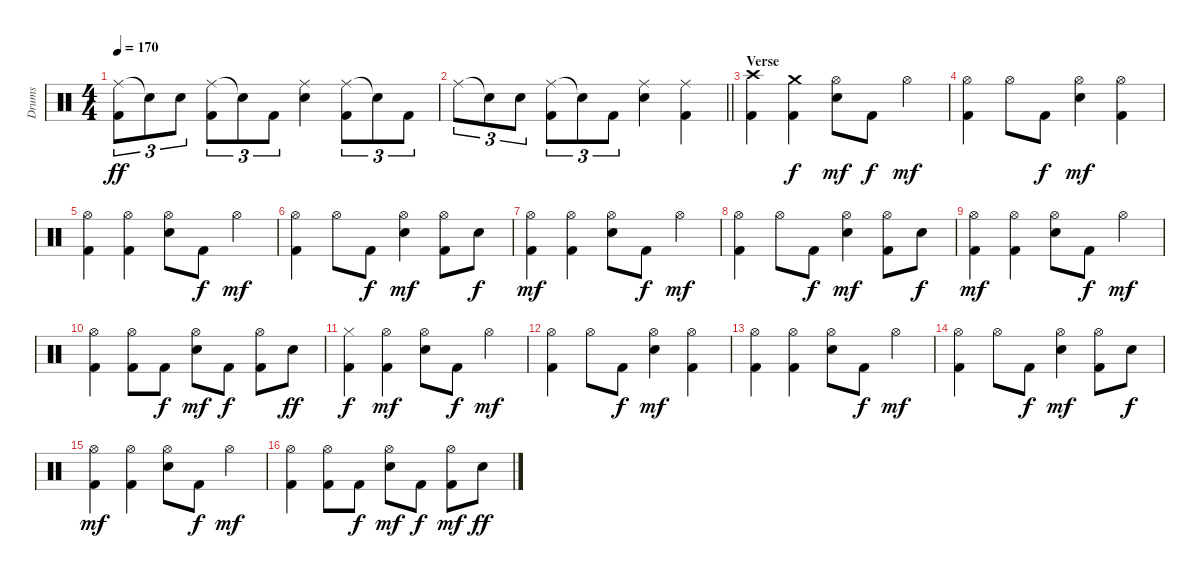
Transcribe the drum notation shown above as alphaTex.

\track ("Drums" "Drums") {instrument percussion}
\staff {score}
\articulation defaults
\ts (4 4)
\tempo 170
\clef neutral
\ks c
("Ride (middle)" "Kick (hit) 2").8{tu (3 2) dy ff} "Snare (hit)"{t}.8{tu (3 2)} "Snare (hit) 2".8{tu (3 2)} ("Ride (middle)" "Kick (hit) 2").8{tu (3 2)} "Snare (hit)"{t}.8{tu (3 2)} "Kick (hit) 2".8{tu (3 2)} ("Ride (middle)" "Snare (hit) 2").4 ("Ride (middle)" "Kick (hit) 2").8{tu (3 2)} "Snare (hit)"{t}.8{tu (3 2)} "Kick (hit) 2".8{tu (3 2)} |
\barLineRight lightlight "Ride (middle)".8{tu (3 2)} "Snare (hit)"{t}.8{tu (3 2)} "Snare (hit) 2".8{tu (3 2)}
("Ride (middle)" "Kick (hit) 2").8{tu (3 2)} "Snare (hit)"{t}.8{tu (3 2)} "Kick (hit) 2".8{tu (3 2)} ("Ride (middle)" "Snare (hit) 2").4 ("Ride (middle)" "Kick (hit) 2").4 |
\section ("" "Verse")
("Crash high (hit)" "Kick (hit) 2").4 ("Crash medium (hit)" "Kick (hit) 2").4{dy f} ("Hi-Hat (open)" "Snare (hit) 2").8{dy mf} "Kick (hit) 2".8{dy f} "Hi-Hat (open)".4{dy mf} |
("Hi-Hat (open)" "Kick (hit) 2").4 "Hi-Hat (open)".8 "Kick (hit) 2".8{dy f} ("Hi-Hat (open)" "Snare (hit) 2").4{dy mf} ("Hi-Hat (open)" "Kick (hit) 2").4 |
("Hi-Hat (open)" "Kick (hit) 2").4 ("Hi-Hat (open)" "Kick (hit) 2").4 ("Hi-Hat (open)" "Snare (hit) 2").8 "Kick (hit) 2".8{dy f} "Hi-Hat (open)".4{dy mf} |
("Hi-Hat (open)" "Kick (hit) 2").4 "Hi-Hat (open)".8 "Kick (hit) 2".8{dy f} ("Hi-Hat (open)" "Snare (hit) 2").4{dy mf} ("Hi-Hat (open)" "Kick (hit) 2").8 "Snare (hit) 2".8{dy f} |
("Hi-Hat (open)" "Kick (hit) 2").4{dy mf} ("Hi-Hat (open)" "Kick (hit) 2").4 ("Hi-Hat (open)" "Snare (hit) 2").8 "Kick (hit) 2".8{dy f} "Hi-Hat (open)".4{dy mf} |
("Hi-Hat (open)" "Kick (hit) 2").4 "Hi-Hat (open)".8 "Kick (hit) 2".8{dy f} ("Hi-Hat (open)" "Snare (hit) 2").4{dy mf} ("Hi-Hat (open)" "Kick (hit) 2").8 "Snare (hit) 2".8{dy f} |
("Hi-Hat (open)" "Kick (hit) 2").4{dy mf} ("Hi-Hat (open)" "Kick (hit) 2").4 ("Hi-Hat (open)" "Snare (hit) 2").8 "Kick (hit) 2".8{dy f} "Hi-Hat (open)".4{dy mf} |
("Hi-Hat (open)" "Kick (hit) 2").4 ("Hi-Hat (open)" "Kick (hit) 2").8 "Kick (hit) 2".8{dy f} ("Hi-Hat (open)" "Snare (hit) 2").8{dy mf} "Kick (hit) 2".8{dy f} ("Hi-Hat (open)" "Kick (hit) 2").8 "Snare (hit) 2".8{dy ff} |
("Hi-Hat (closed)" "Kick (hit) 2").4{dy f} ("Hi-Hat (open)" "Kick (hit) 2").4{dy mf} ("Hi-Hat (open)" "Snare (hit) 2").8 "Kick (hit) 2".8{dy f} "Hi-Hat (open)".4{dy mf} |
("Hi-Hat (open)" "Kick (hit) 2").4 "Hi-Hat (open)".8 "Kick (hit) 2".8{dy f} ("Hi-Hat (open)" "Snare (hit) 2").4{dy mf} ("Hi-Hat (open)" "Kick (hit) 2").4 |
("Hi-Hat (open)" "Kick (hit) 2").4 ("Hi-Hat (open)" "Kick (hit) 2").4 ("Hi-Hat (open)" "Snare (hit) 2").8 "Kick (hit) 2".8{dy f} "Hi-Hat (open)".4{dy mf} |
("Hi-Hat (open)" "Kick (hit) 2").4 "Hi-Hat (open)".8 "Kick (hit) 2".8{dy f} ("Hi-Hat (open)" "Snare (hit) 2").4{dy mf} ("Hi-Hat (open)" "Kick (hit) 2").8 "Snare (hit) 2".8{dy f} |
("Hi-Hat (open)" "Kick (hit) 2").4{dy mf} ("Hi-Hat (open)" "Kick (hit) 2").4 ("Hi-Hat (open)" "Snare (hit) 2").8 "Kick (hit) 2".8{dy f} "Hi-Hat (open)".4{dy mf} |
("Hi-Hat (open)" "Kick (hit) 2").4 ("Hi-Hat (open)" "Kick (hit) 2").8 "Kick (hit) 2".8{dy f} ("Hi-Hat (open)" "Snare (hit) 2").8{dy mf} "Kick (hit) 2".8{dy f} ("Hi-Hat (open)" "Kick (hit) 2").8{dy mf} "Snare (hit) 2".8{dy ff}
